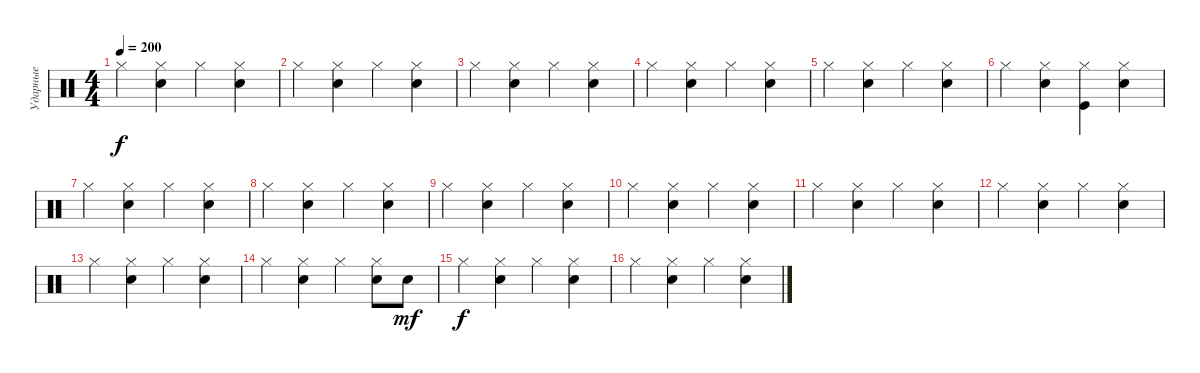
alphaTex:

\track ("Ударные" "Ударные") {instrument percussion}
\staff {score}
\articulation defaults
\ts (4 4)
\tempo 200
\clef neutral
\ks c "Hi-Hat (closed)".4{dy f}
("Snare (hit) 2" "Hi-Hat (closed)").4 "Hi-Hat (closed)".4 ("Snare (hit) 2" "Hi-Hat (closed)").4 |
"Hi-Hat (closed)".4 ("Snare (hit) 2" "Hi-Hat (closed)").4 "Hi-Hat (closed)".4 ("Snare (hit) 2" "Hi-Hat (closed)").4 |
"Hi-Hat (closed)".4 ("Snare (hit) 2" "Hi-Hat (closed)").4 "Hi-Hat (closed)".4 ("Snare (hit) 2" "Hi-Hat (closed)").4 |
"Hi-Hat (closed)".4 ("Snare (hit) 2" "Hi-Hat (closed)").4 "Hi-Hat (closed)".4 ("Snare (hit) 2" "Hi-Hat (closed)").4 |
"Hi-Hat (closed)".4 ("Snare (hit) 2" "Hi-Hat (closed)").4 "Hi-Hat (closed)".4 ("Snare (hit) 2" "Hi-Hat (closed)").4 |
"Hi-Hat (closed)".4 ("Snare (hit) 2" "Hi-Hat (closed)").4 ("Kick (hit)" "Hi-Hat (closed)").4 ("Snare (hit) 2" "Hi-Hat (closed)").4 |
"Hi-Hat (closed)".4 ("Snare (hit) 2" "Hi-Hat (closed)").4 "Hi-Hat (closed)".4 ("Snare (hit) 2" "Hi-Hat (closed)").4 |
"Hi-Hat (closed)".4 ("Snare (hit) 2" "Hi-Hat (closed)").4 "Hi-Hat (closed)".4 ("Snare (hit) 2" "Hi-Hat (closed)").4 |
"Hi-Hat (closed)".4 ("Snare (hit) 2" "Hi-Hat (closed)").4 "Hi-Hat (closed)".4 ("Snare (hit) 2" "Hi-Hat (closed)").4 |
"Hi-Hat (closed)".4 ("Snare (hit) 2" "Hi-Hat (closed)").4 "Hi-Hat (closed)".4 ("Snare (hit) 2" "Hi-Hat (closed)").4 |
"Hi-Hat (closed)".4 ("Snare (hit) 2" "Hi-Hat (closed)").4 "Hi-Hat (closed)".4 ("Snare (hit) 2" "Hi-Hat (closed)").4 |
"Hi-Hat (closed)".4 ("Snare (hit) 2" "Hi-Hat (closed)").4 "Hi-Hat (closed)".4 ("Snare (hit) 2" "Hi-Hat (closed)").4 |
"Hi-Hat (closed)".4 ("Snare (hit) 2" "Hi-Hat (closed)").4 "Hi-Hat (closed)".4 ("Snare (hit) 2" "Hi-Hat (closed)").4 |
"Hi-Hat (closed)".4 ("Snare (hit) 2" "Hi-Hat (closed)").4 "Hi-Hat (closed)".4 ("Electric Snare (hit)" "Hi-Hat (closed)").8 "Electric Snare (hit)".8{dy mf} |
"Hi-Hat (closed)".4{dy f} ("Snare (hit) 2" "Hi-Hat (closed)").4 "Hi-Hat (closed)".4 ("Snare (hit) 2" "Hi-Hat (closed)").4 |
"Hi-Hat (closed)".4 ("Snare (hit) 2" "Hi-Hat (closed)").4 "Hi-Hat (closed)".4 ("Snare (hit) 2" "Hi-Hat (closed)").4
